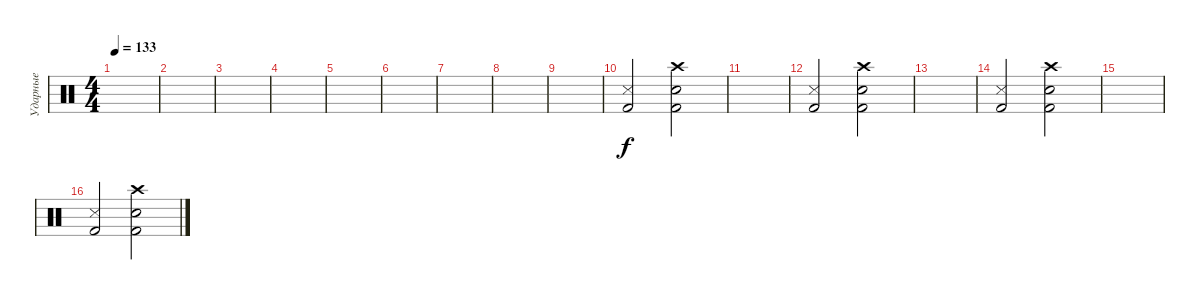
\track ("Ударные" "Ударные") {instrument percussion}
\staff {score}
\articulation defaults
\ts (4 4)
\tempo 133
\clef neutral
\ks c
|
|
|
|
|
|
|
|
|
("Kick (hit) 2" "Metronome (hit)").2 ("Kick (hit) 2" "Electric Snare (hit)" "Crash high (hit)").2 |
|
("Kick (hit) 2" "Metronome (hit)").2 ("Kick (hit) 2" "Electric Snare (hit)" "Crash high (hit)").2 |
|
("Kick (hit) 2" "Metronome (hit)").2 ("Kick (hit) 2" "Electric Snare (hit)" "Crash high (hit)").2 |
|
("Kick (hit) 2" "Metronome (hit)").2 ("Kick (hit) 2" "Electric Snare (hit)" "Crash high (hit)").2
